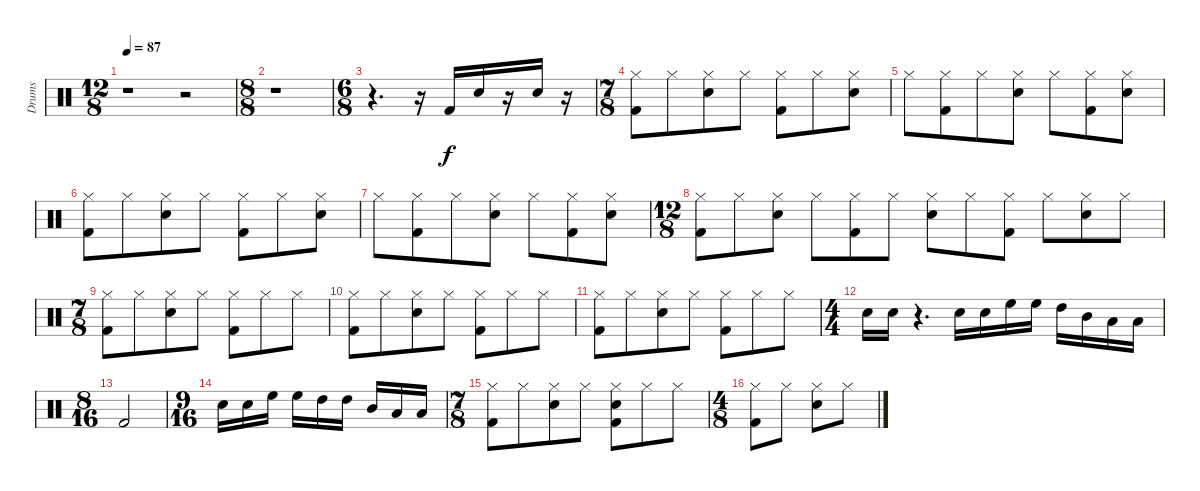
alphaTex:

\track ("Drums" "Drums") {instrument percussion}
\staff {score}
\articulation defaults
\ts (12 8)
\tempo 87
\clef neutral
\ks c
r.1{dy f} r.2 |
\ts (8 8)
r.1 |
\ts (6 8)
r.4{d} r.16 "Kick (hit) 2".16 "Snare (hit) 2".16 r.16 "Snare (hit) 2".16 r.16 |
\ts (7 8)
("Hi-Hat (closed)" "Kick (hit) 2").8 "Hi-Hat (closed)".8 ("Hi-Hat (closed)" "Snare (hit) 2").8 "Hi-Hat (closed)".8 ("Hi-Hat (closed)" "Kick (hit) 2").8 "Hi-Hat (closed)".8 ("Hi-Hat (closed)" "Snare (hit) 2").8 |
"Hi-Hat (closed)".8 ("Hi-Hat (closed)" "Kick (hit) 2").8 "Hi-Hat (closed)".8 ("Hi-Hat (closed)" "Snare (hit) 2").8 "Hi-Hat (closed)".8 ("Hi-Hat (closed)" "Kick (hit) 2").8 ("Hi-Hat (closed)" "Snare (hit) 2").8 |
("Hi-Hat (closed)" "Kick (hit) 2").8 "Hi-Hat (closed)".8 ("Hi-Hat (closed)" "Snare (hit) 2").8 "Hi-Hat (closed)".8 ("Hi-Hat (closed)" "Kick (hit) 2").8 "Hi-Hat (closed)".8 ("Hi-Hat (closed)" "Snare (hit) 2").8 |
"Hi-Hat (closed)".8 ("Hi-Hat (closed)" "Kick (hit) 2").8 "Hi-Hat (closed)".8 ("Hi-Hat (closed)" "Snare (hit) 2").8 "Hi-Hat (closed)".8 ("Hi-Hat (closed)" "Kick (hit) 2").8 ("Hi-Hat (closed)" "Snare (hit) 2").8 |
\ts (12 8)
("Hi-Hat (closed)" "Kick (hit) 2").8 "Hi-Hat (closed)".8 ("Hi-Hat (closed)" "Snare (hit) 2").8 "Hi-Hat (closed)".8 ("Hi-Hat (closed)" "Kick (hit) 2").8 "Hi-Hat (closed)".8 ("Hi-Hat (closed)" "Snare (hit) 2").8 "Hi-Hat (closed)".8 ("Hi-Hat (closed)" "Kick (hit) 2").8 "Hi-Hat (closed)".8 ("Hi-Hat (closed)" "Snare (hit) 2").8 "Hi-Hat (closed)".8 |
\ts (7 8)
("Hi-Hat (closed)" "Kick (hit) 2").8 "Hi-Hat (closed)".8 ("Hi-Hat (closed)" "Snare (hit) 2").8 "Hi-Hat (closed)".8 ("Hi-Hat (closed)" "Kick (hit) 2").8 "Hi-Hat (closed)".8 "Hi-Hat (closed)".8 |
("Hi-Hat (closed)" "Kick (hit) 2").8 "Hi-Hat (closed)".8 ("Hi-Hat (closed)" "Snare (hit) 2").8 "Hi-Hat (closed)".8 ("Hi-Hat (closed)" "Kick (hit) 2").8 "Hi-Hat (closed)".8 "Hi-Hat (closed)".8 |
("Hi-Hat (closed)" "Kick (hit) 2").8 "Hi-Hat (closed)".8 ("Hi-Hat (closed)" "Snare (hit) 2").8 "Hi-Hat (closed)".8 ("Hi-Hat (closed)" "Kick (hit) 2").8 "Hi-Hat (closed)".8 "Hi-Hat (closed)".8 |
\ts (4 4)
"Snare (hit) 2".16 "Snare (hit) 2".16 r.4{d} "Snare (hit) 2".16 "Snare (hit) 2".16 "High Floor Tom (hit)".16 "High Floor Tom (hit)".16 "High Tom (hit)".16 "Mid Tom (hit)".16 "Low Tom (hit)".16 "Low Tom (hit)".16 |
\ts (8 16)
"Kick (hit) 2".2 |
\ts (9 16)
"Snare (hit) 2".16 "Snare (hit) 2".16 "High Floor Tom (hit)".16 "High Floor Tom (hit)".16 "High Tom (hit)".16 "High Tom (hit)".16 "Mid Tom (hit)".16 "Low Tom (hit)".16 "Low Tom (hit)".16 |
\ts (7 8)
("Hi-Hat (closed)" "Kick (hit) 2").8 "Hi-Hat (closed)".8 ("Hi-Hat (closed)" "Snare (hit) 2").8 "Hi-Hat (closed)".8 ("Hi-Hat (closed)" "Kick (hit) 2" "Snare (hit) 2").8 "Hi-Hat (closed)".8 "Hi-Hat (closed)".8 |
\ts (4 8)
("Hi-Hat (closed)" "Kick (hit) 2").8 "Hi-Hat (closed)".8 ("Hi-Hat (closed)" "Snare (hit) 2").8 "Hi-Hat (closed)".8
